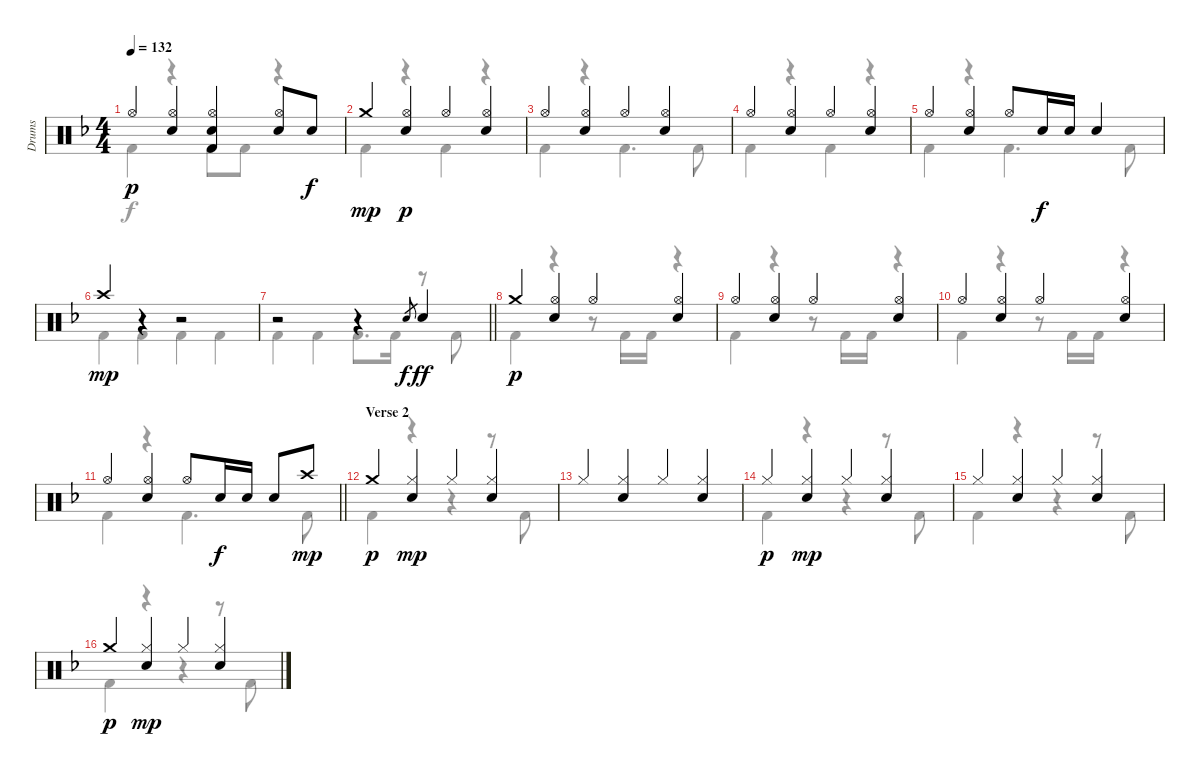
\track ("Drums" "Drums") {instrument percussion}
\staff {score}
\articulation defaults
\voice
\ts (4 4)
\tempo 132
\clef neutral
\ks f "Hi-Hat (open)".4{dy p}
("Hi-Hat (open)" "Electric Snare (hit)").4 ("Hi-Hat (open)" "Kick (hit) 2" "Electric Snare (hit)").4 ("Hi-Hat (open)" "Electric Snare (hit)").8 "Electric Snare (hit)".8{dy f} |
"Crash medium (hit)".4{dy mp} ("Hi-Hat (open)" "Electric Snare (hit)").4{dy p} "Hi-Hat (open)".4 ("Hi-Hat (open)" "Electric Snare (hit)").4 |
"Hi-Hat (open)".4 ("Hi-Hat (open)" "Electric Snare (hit)").4 "Hi-Hat (open)".4 ("Hi-Hat (open)" "Electric Snare (hit)").4 |
"Hi-Hat (open)".4 ("Hi-Hat (open)" "Electric Snare (hit)").4 "Hi-Hat (open)".4 ("Hi-Hat (open)" "Electric Snare (hit)").4 |
"Hi-Hat (open)".4 ("Hi-Hat (open)" "Electric Snare (hit)").4 "Hi-Hat (open)".8 "Electric Snare (hit)".16{dy f} "Electric Snare (hit)".16 "Electric Snare (hit)".4 |
"Crash high (hit)".4{dy mp} r.4 r.2 |
\barLineRight lightlight
r.2 r.4 "Electric Snare (hit)".8{gr dy f} "Electric Snare (hit)".4{dy ff} |
"Crash medium (hit)".4{dy p} ("Hi-Hat (open)" "Electric Snare (hit)").4 "Hi-Hat (open)".4 ("Hi-Hat (open)" "Electric Snare (hit)").4 |
"Hi-Hat (open)".4 ("Hi-Hat (open)" "Electric Snare (hit)").4 "Hi-Hat (open)".4 ("Hi-Hat (open)" "Electric Snare (hit)").4 |
"Hi-Hat (open)".4 ("Hi-Hat (open)" "Electric Snare (hit)").4 "Hi-Hat (open)".4 ("Hi-Hat (open)" "Electric Snare (hit)").4 |
\barLineRight lightlight "Hi-Hat (open)".4
("Hi-Hat (open)" "Electric Snare (hit)").4 "Hi-Hat (open)".8 "Electric Snare (hit)".16{dy f} "Electric Snare (hit)".16 "Electric Snare (hit)".8 "Crash high (hit)".8{dy mp} |
\section ("" "Verse 2")
"Crash medium (hit)".4{dy p} ("Hi-Hat (closed)" "Electric Snare (hit)").4{dy mp} "Hi-Hat (closed)".4 ("Hi-Hat (closed)" "Electric Snare (hit)").4 |
"Hi-Hat (closed)".4{beam Up} ("Hi-Hat (closed)" "Electric Snare (hit)").4{beam Up} "Hi-Hat (closed)".4{beam Up} ("Hi-Hat (closed)" "Electric Snare (hit)").4{beam Up} |
"Hi-Hat (closed)".4{dy p} ("Hi-Hat (closed)" "Electric Snare (hit)").4{dy mp} "Hi-Hat (closed)".4 ("Hi-Hat (closed)" "Electric Snare (hit)").4 |
"Hi-Hat (closed)".4 ("Hi-Hat (closed)" "Electric Snare (hit)").4 "Hi-Hat (closed)".4 ("Hi-Hat (closed)" "Electric Snare (hit)").4 |
"Crash medium (hit)".4{dy p} ("Hi-Hat (closed)" "Electric Snare (hit)").4{dy mp} "Hi-Hat (closed)".4 ("Hi-Hat (closed)" "Electric Snare (hit)").4
\voice
\clef neutral
\ottava regular
\simile none
\ks f "Kick (hit) 2".4{dy f}
r.4 "Kick (hit) 2".8 "Kick (hit) 2".8 r.4 |
"Kick (hit) 2".4 r.4 "Kick (hit) 2".4 r.4 |
"Kick (hit) 2".4 r.4 "Kick (hit) 2".4{d} "Kick (hit) 2".8 |
"Kick (hit) 2".4 r.4 "Kick (hit) 2".4 r.4 |
"Kick (hit) 2".4 r.4 "Kick (hit) 2".4{d} "Kick (hit) 2".8 |
"Kick (hit) 2".4 "Kick (hit) 2".4 "Kick (hit) 2".4 "Kick (hit) 2".4 |
\barLineRight lightlight "Kick (hit) 2".4 "Kick (hit) 2".4 "Kick (hit) 2".8{d} "Kick (hit) 2".16
r.8 "Kick (hit) 2".8 |
"Kick (hit) 2".4 r.4 r.8 "Kick (hit) 2".16 "Kick (hit) 2".16 r.4 |
"Kick (hit) 2".4 r.4 r.8 "Kick (hit) 2".16 "Kick (hit) 2".16 r.4 |
"Kick (hit) 2".4 r.4 r.8 "Kick (hit) 2".16 "Kick (hit) 2".16 r.4 |
\barLineRight lightlight "Kick (hit) 2".4
r.4 "Kick (hit) 2".4{d} "Kick (hit) 2".8 |
"Kick (hit) 2".4 r.4 r.4 r.8 "Kick (hit) 2".8 |
|
"Kick (hit) 2".4 r.4 r.4 r.8 "Kick (hit) 2".8 |
"Kick (hit) 2".4 r.4 r.4 r.8 "Kick (hit) 2".8 |
"Kick (hit) 2".4 r.4 r.4 r.8 "Kick (hit) 2".8
